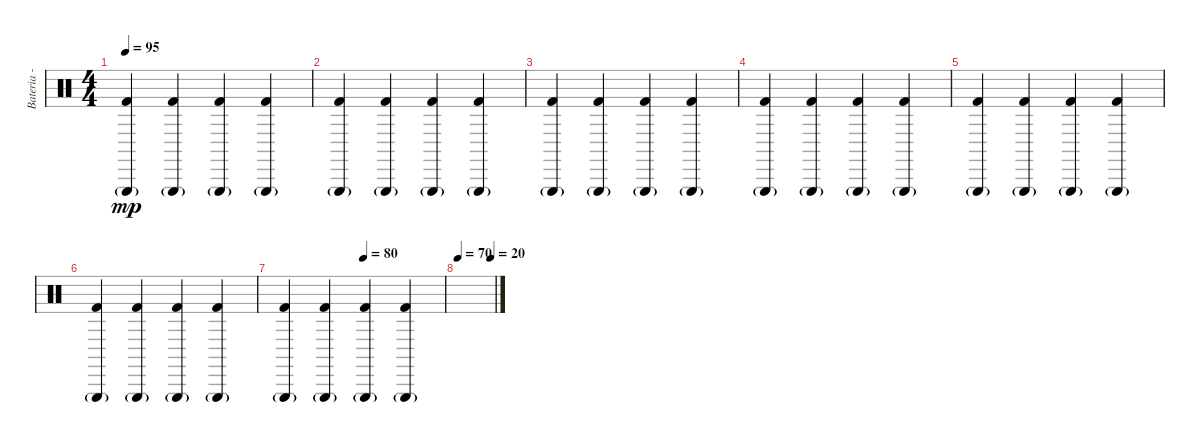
\track ("Bateria - Alfonso André" "Bateria - ") {instrument percussion}
\staff {score}
\articulation defaults
\ts (4 4)
\tempo 95
\clef neutral
\ks c
("Triangle (hit)"{g} "Kick (hit) 2").4{dy mp} ("Triangle (hit)"{g} "Kick (hit) 2").4 ("Triangle (hit)"{g} "Kick (hit) 2").4 ("Triangle (hit)"{g} "Kick (hit) 2").4 |
("Triangle (hit)"{g} "Kick (hit) 2").4 ("Triangle (hit)"{g} "Kick (hit) 2").4 ("Triangle (hit)"{g} "Kick (hit) 2").4 ("Triangle (hit)"{g} "Kick (hit) 2").4 |
("Triangle (hit)"{g} "Kick (hit) 2").4 ("Triangle (hit)"{g} "Kick (hit) 2").4 ("Triangle (hit)"{g} "Kick (hit) 2").4 ("Triangle (hit)"{g} "Kick (hit) 2").4 |
("Triangle (hit)"{g} "Kick (hit) 2").4 ("Triangle (hit)"{g} "Kick (hit) 2").4 ("Triangle (hit)"{g} "Kick (hit) 2").4 ("Triangle (hit)"{g} "Kick (hit) 2").4 |
("Triangle (hit)"{g} "Kick (hit) 2").4 ("Triangle (hit)"{g} "Kick (hit) 2").4 ("Triangle (hit)"{g} "Kick (hit) 2").4 ("Triangle (hit)"{g} "Kick (hit) 2").4 |
("Triangle (hit)"{g} "Kick (hit) 2").4 ("Triangle (hit)"{g} "Kick (hit) 2").4 ("Triangle (hit)"{g} "Kick (hit) 2").4 ("Triangle (hit)"{g} "Kick (hit) 2").4 |
\tempo (80 0.5)
("Triangle (hit)"{g} "Kick (hit) 2").4 ("Triangle (hit)"{g} "Kick (hit) 2").4 ("Triangle (hit)"{g} "Kick (hit) 2").4 ("Triangle (hit)"{g} "Kick (hit) 2").4 |
\tempo (20 0.90625)
\tempo 70
